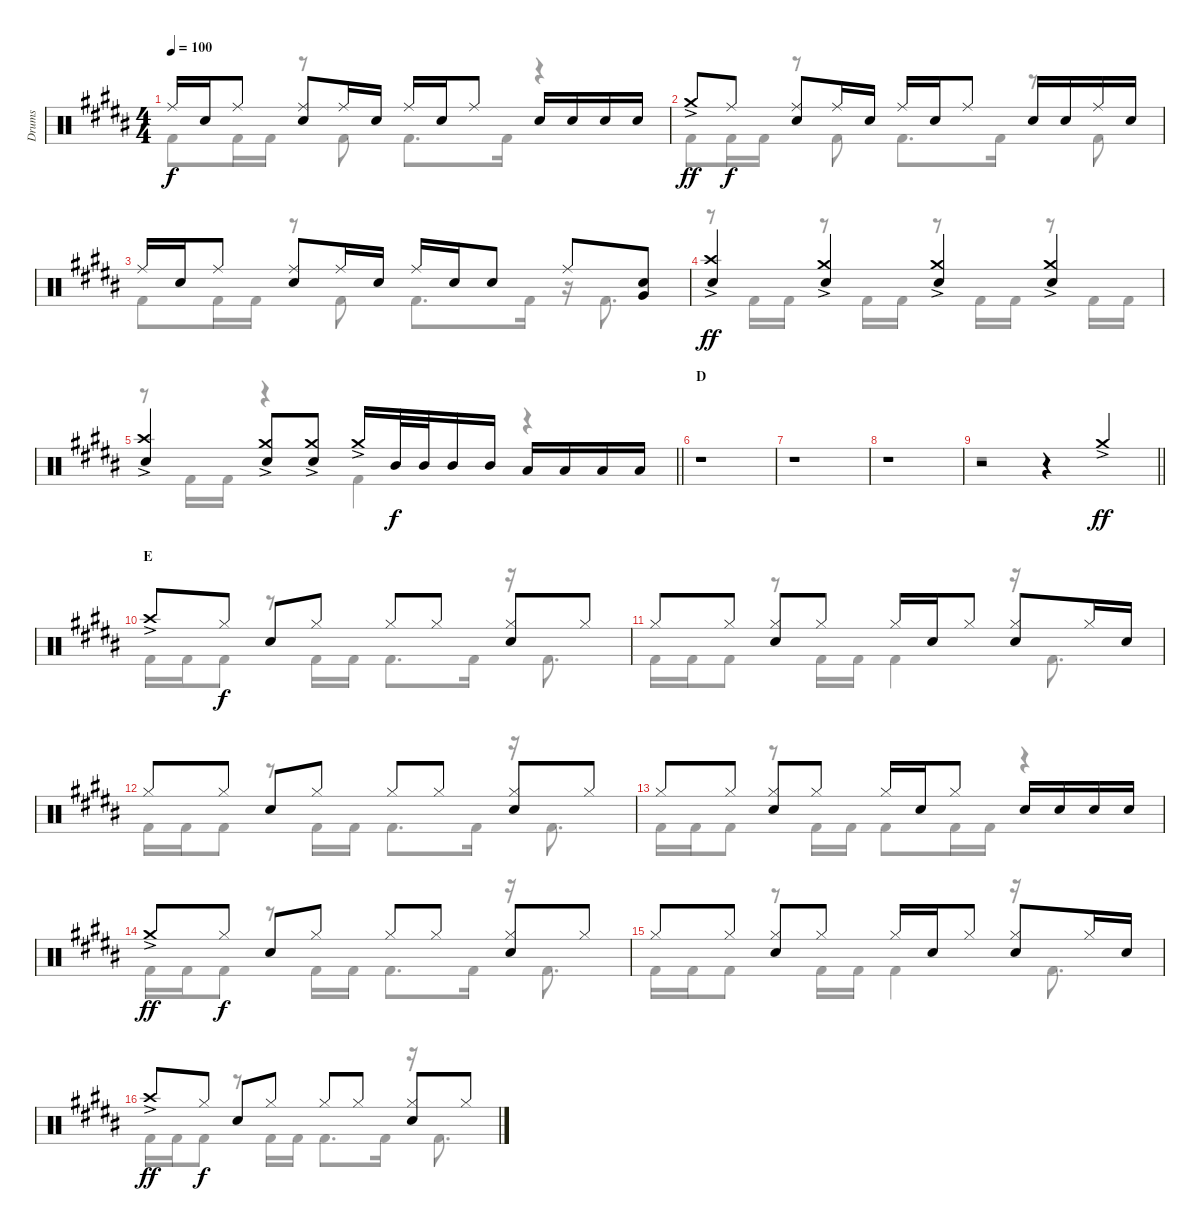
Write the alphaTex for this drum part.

\track ("Drums" "Drums") {instrument percussion}
\staff {score}
\articulation defaults
\voice
\ts (4 4)
\tempo 100
\clef neutral
\ks b "Ride (middle)".16{dy f} "Electric Snare (hit)".16 "Ride (middle)".8
("Ride (middle)" "Electric Snare (hit)").8 "Ride (middle)".16 "Electric Snare (hit)".16 "Ride (middle)".16 "Electric Snare (hit)".16 "Ride (middle)".8 "Electric Snare (hit)".16 "Electric Snare (hit)".16 "Electric Snare (hit)".16 "Electric Snare (hit)".16 |
"Crash medium (hit)"{ac}.8{dy ff} "Ride (middle)".8{dy f} ("Ride (middle)" "Electric Snare (hit)").8 "Ride (middle)".16 "Electric Snare (hit)".16 "Ride (middle)".16 "Electric Snare (hit)".16 "Ride (middle)".8 "Electric Snare (hit)".16 "Electric Snare (hit)".16 "Ride (middle)".16 "Electric Snare (hit)".16 |
"Ride (middle)".16 "Electric Snare (hit)".16 "Ride (middle)".8 ("Ride (middle)" "Electric Snare (hit)").8 "Ride (middle)".16 "Electric Snare (hit)".16 "Ride (middle)".16 "Electric Snare (hit)".16 "Electric Snare (hit)".8 "Ride (middle)".8 ("Very Low Tom (hit)" "Electric Snare (hit)").8 |
("Crash high (hit)"{ac} "Electric Snare (hit)").4{dy ff} ("Crash medium (hit)"{ac} "Electric Snare (hit)").4 ("Crash medium (hit)"{ac} "Electric Snare (hit)").4 ("Crash medium (hit)"{ac} "Electric Snare (hit)").4 |
\barLineRight lightlight
("Crash high (hit)"{ac} "Electric Snare (hit)").4 ("Crash medium (hit)"{ac} "Electric Snare (hit)").8 ("Crash medium (hit)"{ac} "Electric Snare (hit)").8 "Crash medium (hit)"{ac}.16 "Mid Tom (hit)".32{dy f} "Mid Tom (hit)".32 "Mid Tom (hit)".16 "Mid Tom (hit)".16 "Low Tom (hit)".16 "Low Tom (hit)".16 "Low Tom (hit)".16 "Low Tom (hit)".16 |
\section ("" "D")
r.1 |
r.1 |
r.1 |
\barLineRight lightlight
r.2 r.4 "Crash medium (hit)"{ac}.4{dy ff} |
\section ("" "E")
"Crash high (hit)"{ac}.8 "Hi-Hat (closed)".8{dy f} "Electric Snare (hit)".8 "Hi-Hat (closed)".8 "Hi-Hat (closed)".8 "Hi-Hat (closed)".8 ("Hi-Hat (closed)" "Electric Snare (hit)").8 "Hi-Hat (closed)".8 |
"Hi-Hat (closed)".8 "Hi-Hat (closed)".8 ("Hi-Hat (closed)" "Electric Snare (hit)").8 "Hi-Hat (closed)".8 "Hi-Hat (closed)".16 "Electric Snare (hit)".16 "Hi-Hat (closed)".8 ("Hi-Hat (closed)" "Electric Snare (hit)").8 "Hi-Hat (closed)".16 "Electric Snare (hit)".16 |
"Hi-Hat (closed)".8 "Hi-Hat (closed)".8 "Electric Snare (hit)".8 "Hi-Hat (closed)".8 "Hi-Hat (closed)".8 "Hi-Hat (closed)".8 ("Hi-Hat (closed)" "Electric Snare (hit)").8 "Hi-Hat (closed)".8 |
"Hi-Hat (closed)".8 "Hi-Hat (closed)".8 ("Hi-Hat (closed)" "Electric Snare (hit)").8 "Hi-Hat (closed)".8 "Hi-Hat (closed)".16 "Electric Snare (hit)".16 "Hi-Hat (closed)".8 "Electric Snare (hit)".16 "Electric Snare (hit)".16 "Electric Snare (hit)".16 "Electric Snare (hit)".16 |
"Crash medium (hit)"{ac}.8{dy ff} "Hi-Hat (closed)".8{dy f} "Electric Snare (hit)".8 "Hi-Hat (closed)".8 "Hi-Hat (closed)".8 "Hi-Hat (closed)".8 ("Hi-Hat (closed)" "Electric Snare (hit)").8 "Hi-Hat (closed)".8 |
"Hi-Hat (closed)".8 "Hi-Hat (closed)".8 ("Hi-Hat (closed)" "Electric Snare (hit)").8 "Hi-Hat (closed)".8 "Hi-Hat (closed)".16 "Electric Snare (hit)".16 "Hi-Hat (closed)".8 ("Hi-Hat (closed)" "Electric Snare (hit)").8 "Hi-Hat (closed)".16 "Electric Snare (hit)".16 |
"Crash high (hit)"{ac}.8{dy ff} "Hi-Hat (closed)".8{dy f} "Electric Snare (hit)".8 "Hi-Hat (closed)".8 "Hi-Hat (closed)".8 "Hi-Hat (closed)".8 ("Hi-Hat (closed)" "Electric Snare (hit)").8 "Hi-Hat (closed)".8
\voice
\clef neutral
\ottava regular
\simile none
\ks b "Kick (hit) 2".8{dy f} "Kick (hit) 2".16 "Kick (hit) 2".16
r.8 "Kick (hit) 2".8 "Kick (hit) 2".8{d} "Kick (hit) 2".16 r.4 |
"Kick (hit) 2".8 "Kick (hit) 2".16 "Kick (hit) 2".16 r.8 "Kick (hit) 2".8 "Kick (hit) 2".8{d} "Kick (hit) 2".16 r.8 "Kick (hit) 2".8 |
"Kick (hit) 2".8 "Kick (hit) 2".16 "Kick (hit) 2".16 r.8 "Kick (hit) 2".8 "Kick (hit) 2".8{d} "Kick (hit) 2".16 r.16 "Kick (hit) 2".8{d} |
r.8 "Kick (hit) 2".16 "Kick (hit) 2".16 r.8 "Kick (hit) 2".16 "Kick (hit) 2".16 r.8 "Kick (hit) 2".16 "Kick (hit) 2".16 r.8 "Kick (hit) 2".16 "Kick (hit) 2".16 |
\barLineRight lightlight
r.8 "Kick (hit) 2".16 "Kick (hit) 2".16 r.4 "Kick (hit) 2".4 r.4 |
|
|
|
\barLineRight lightlight
r.1 |
"Kick (hit) 2".16 "Kick (hit) 2".16 "Kick (hit) 2".8 r.8 "Kick (hit) 2".16 "Kick (hit) 2".16 "Kick (hit) 2".8{d} "Kick (hit) 2".16 r.16 "Kick (hit) 2".8{d} |
"Kick (hit) 2".16 "Kick (hit) 2".16 "Kick (hit) 2".8 r.8 "Kick (hit) 2".16 "Kick (hit) 2".16 "Kick (hit) 2".4 r.16 "Kick (hit) 2".8{d} |
"Kick (hit) 2".16 "Kick (hit) 2".16 "Kick (hit) 2".8 r.8 "Kick (hit) 2".16 "Kick (hit) 2".16 "Kick (hit) 2".8{d} "Kick (hit) 2".16 r.16 "Kick (hit) 2".8{d} |
"Kick (hit) 2".16 "Kick (hit) 2".16 "Kick (hit) 2".8 r.8 "Kick (hit) 2".16 "Kick (hit) 2".16 "Kick (hit) 2".8 "Kick (hit) 2".16 "Kick (hit) 2".16 r.4 |
"Kick (hit) 2".16 "Kick (hit) 2".16 "Kick (hit) 2".8 r.8 "Kick (hit) 2".16 "Kick (hit) 2".16 "Kick (hit) 2".8{d} "Kick (hit) 2".16 r.16 "Kick (hit) 2".8{d} |
"Kick (hit) 2".16 "Kick (hit) 2".16 "Kick (hit) 2".8 r.8 "Kick (hit) 2".16 "Kick (hit) 2".16 "Kick (hit) 2".4 r.16 "Kick (hit) 2".8{d} |
"Kick (hit) 2".16 "Kick (hit) 2".16 "Kick (hit) 2".8 r.8 "Kick (hit) 2".16 "Kick (hit) 2".16 "Kick (hit) 2".8{d} "Kick (hit) 2".16 r.16 "Kick (hit) 2".8{d}
